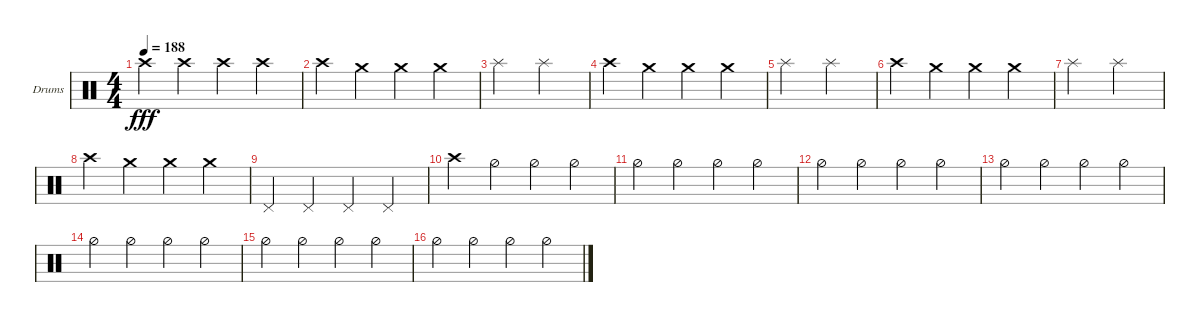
\defaultSystemsLayout 4
\bracketExtendMode groupsimilarinstruments
\firstSystemTrackNameOrientation horizontal
\otherSystemsTrackNameOrientation horizontal
\track ("Пашок" "Drums") {instrument percussion}
\staff {score}
\articulation defaults
\ts (4 4)
\tempo 188
\clef neutral
\ks c "Crash high (hit)".4{dy fff} "Crash high (hit)".4 "Crash high (hit)".4 "Crash high (hit)".4
|
"Crash high (hit)".4 "Crash medium (hit)".4 "Crash medium (hit)".4 "Crash medium (hit)".4 |
"Splash (hit)".2 "Splash (hit)".2 |
"Crash high (hit)".4 "Crash medium (hit)".4 "Crash medium (hit)".4 "Crash medium (hit)".4 |
"Splash (hit)".2 "Splash (hit)".2 |
"Crash high (hit)".4 "Crash medium (hit)".4 "Crash medium (hit)".4 "Crash medium (hit)".4 |
"Splash (hit)".2 "Splash (hit)".2 |
"Crash high (hit)".4 "Crash medium (hit)".4 "Crash medium (hit)".4 "Crash medium (hit)".4 |
"Pedal Hi-Hat (hit)".4 "Pedal Hi-Hat (hit)".4 "Pedal Hi-Hat (hit)".4 "Pedal Hi-Hat (hit)".4 |
"Crash high (hit)".4 "Hi-Hat (half)".4 "Hi-Hat (half)".4 "Hi-Hat (half)".4 |
"Hi-Hat (half)".4 "Hi-Hat (half)".4 "Hi-Hat (half)".4 "Hi-Hat (half)".4 |
"Hi-Hat (half)".4 "Hi-Hat (half)".4 "Hi-Hat (half)".4 "Hi-Hat (half)".4 |
"Hi-Hat (half)".4 "Hi-Hat (half)".4 "Hi-Hat (half)".4 "Hi-Hat (half)".4 |
"Hi-Hat (half)".4 "Hi-Hat (half)".4 "Hi-Hat (half)".4 "Hi-Hat (half)".4 |
"Hi-Hat (half)".4 "Hi-Hat (half)".4 "Hi-Hat (half)".4 "Hi-Hat (half)".4 |
"Hi-Hat (half)".4 "Hi-Hat (half)".4 "Hi-Hat (half)".4 "Hi-Hat (half)".4
